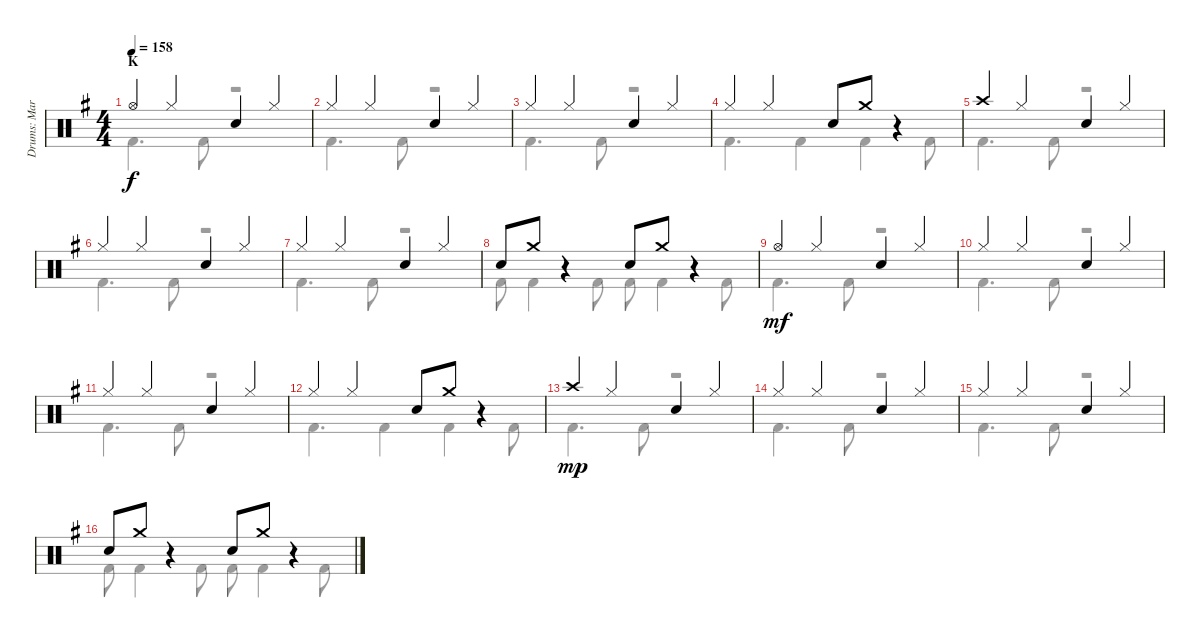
\track ("Drums: Mark" "Drums: Mar") {instrument percussion}
\staff {score}
\articulation defaults
\voice
\ts (4 4)
\section ("" "K")
\tempo 158
\clef neutral
\ks g "Hi-Hat (open)".4{dy f} "Hi-Hat (closed)".4 "Snare (hit) 2".4 "Hi-Hat (closed)".4
|
"Hi-Hat (closed)".4 "Hi-Hat (closed)".4 "Snare (hit) 2".4 "Hi-Hat (closed)".4 |
"Hi-Hat (closed)".4 "Hi-Hat (closed)".4 "Snare (hit) 2".4 "Hi-Hat (closed)".4 |
"Hi-Hat (closed)".4 "Hi-Hat (closed)".4 "Snare (hit) 2".8 "Crash medium (hit)".8 r.4 |
"Crash high (hit)".4 "Hi-Hat (closed)".4 "Snare (hit) 2".4 "Hi-Hat (closed)".4 |
"Hi-Hat (closed)".4 "Hi-Hat (closed)".4 "Snare (hit) 2".4 "Hi-Hat (closed)".4 |
"Hi-Hat (closed)".4 "Hi-Hat (closed)".4 "Snare (hit) 2".4 "Hi-Hat (closed)".4 |
"Snare (hit) 2".8 "Crash medium (hit)".8 r.4 "Snare (hit) 2".8 "Crash medium (hit)".8 r.4 |
"Hi-Hat (open)".4{dy mf volume 8} "Hi-Hat (closed)".4 "Snare (hit) 2".4 "Hi-Hat (closed)".4 |
"Hi-Hat (closed)".4 "Hi-Hat (closed)".4 "Snare (hit) 2".4 "Hi-Hat (closed)".4 |
"Hi-Hat (closed)".4 "Hi-Hat (closed)".4 "Snare (hit) 2".4 "Hi-Hat (closed)".4 |
"Hi-Hat (closed)".4 "Hi-Hat (closed)".4 "Snare (hit) 2".8 "Crash medium (hit)".8 r.4 |
"Crash high (hit)".4{dy mp volume 0} "Hi-Hat (closed)".4 "Snare (hit) 2".4 "Hi-Hat (closed)".4 |
"Hi-Hat (closed)".4 "Hi-Hat (closed)".4 "Snare (hit) 2".4 "Hi-Hat (closed)".4 |
"Hi-Hat (closed)".4 "Hi-Hat (closed)".4 "Snare (hit) 2".4 "Hi-Hat (closed)".4 |
"Snare (hit) 2".8 "Crash medium (hit)".8 r.4 "Snare (hit) 2".8 "Crash medium (hit)".8 r.4
\voice
\clef neutral
\ottava regular
\simile none
\ks g "Kick (hit) 2".4{d dy f} "Kick (hit) 2".8
r.2 |
"Kick (hit) 2".4{d} "Kick (hit) 2".8 r.2 |
"Kick (hit) 2".4{d} "Kick (hit) 2".8 r.2 |
"Kick (hit) 2".4{d} "Kick (hit) 2".4 "Kick (hit) 2".4 "Kick (hit) 2".8 |
"Kick (hit) 2".4{d} "Kick (hit) 2".8 r.2 |
"Kick (hit) 2".4{d} "Kick (hit) 2".8 r.2 |
"Kick (hit) 2".4{d} "Kick (hit) 2".8 r.2 |
"Kick (hit) 2".8 "Kick (hit) 2".4 "Kick (hit) 2".8 "Kick (hit) 2".8 "Kick (hit) 2".4 "Kick (hit) 2".8 |
"Kick (hit) 2".4{d dy mf} "Kick (hit) 2".8 r.2 |
"Kick (hit) 2".4{d} "Kick (hit) 2".8 r.2 |
"Kick (hit) 2".4{d} "Kick (hit) 2".8 r.2 |
"Kick (hit) 2".4{d} "Kick (hit) 2".4 "Kick (hit) 2".4 "Kick (hit) 2".8 |
"Kick (hit) 2".4{d dy mp} "Kick (hit) 2".8 r.2 |
"Kick (hit) 2".4{d} "Kick (hit) 2".8 r.2 |
"Kick (hit) 2".4{d} "Kick (hit) 2".8 r.2 |
"Kick (hit) 2".8 "Kick (hit) 2".4 "Kick (hit) 2".8 "Kick (hit) 2".8 "Kick (hit) 2".4 "Kick (hit) 2".8
